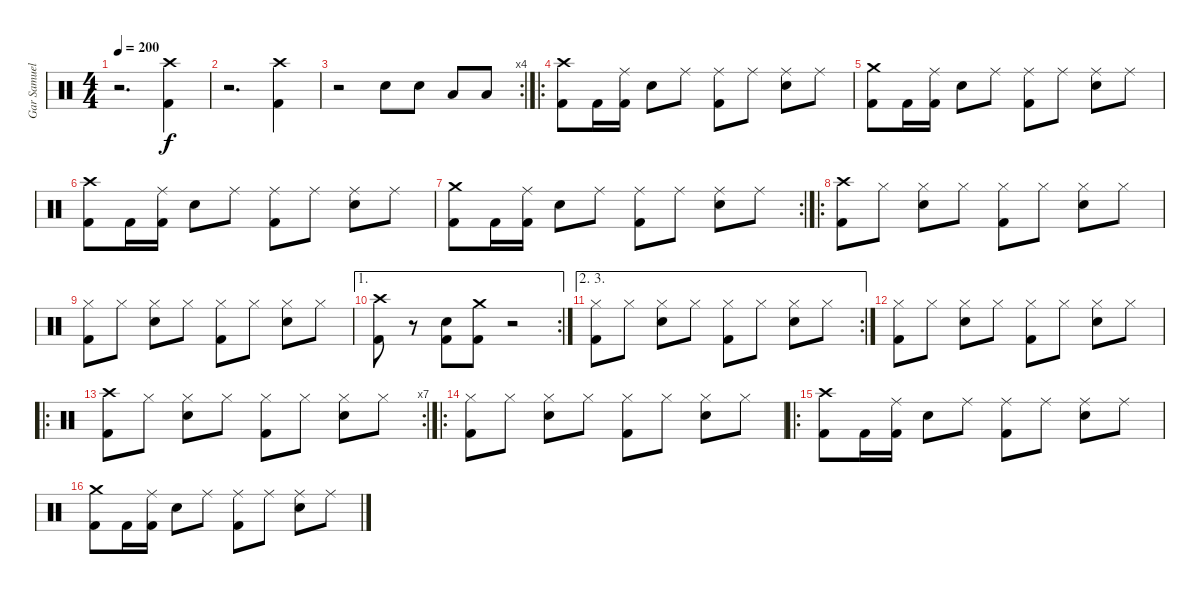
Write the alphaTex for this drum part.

\track ("Gar Samuelson" "Gar Samuel") {instrument percussion}
\staff {score}
\articulation defaults
\ts (4 4)
\tempo 200
\clef neutral
\ks c
r.2{d dy f} ("Crash high (hit)" "Kick (hit) 2").4 |
r.2{d} ("Crash high (hit)" "Kick (hit) 2").4 |
\rc 4
r.2 "Snare (hit) 2".8 "Snare (hit) 2".8 "Low Tom (hit)".8 "Low Tom (hit)".8 |
\ro
("Crash high (hit)" "Kick (hit) 2").8 "Kick (hit) 2".16 ("Ride (middle)" "Kick (hit) 2").16 "Snare (hit) 2".8 "Ride (middle)".8 ("Ride (middle)" "Kick (hit) 2").8 "Ride (middle)".8 ("Ride (middle)" "Snare (hit) 2").8 "Ride (middle)".8 |
("Crash medium (hit)" "Kick (hit) 2").8 "Kick (hit) 2".16 ("Ride (middle)" "Kick (hit) 2").16 "Snare (hit) 2".8 "Ride (middle)".8 ("Ride (middle)" "Kick (hit) 2").8 "Ride (middle)".8 ("Ride (middle)" "Snare (hit) 2").8 "Ride (middle)".8 |
("Crash high (hit)" "Kick (hit) 2").8 "Kick (hit) 2".16 ("Ride (middle)" "Kick (hit) 2").16 "Snare (hit) 2".8 "Ride (middle)".8 ("Ride (middle)" "Kick (hit) 2").8 "Ride (middle)".8 ("Ride (middle)" "Snare (hit) 2").8 "Ride (middle)".8 |
\rc 2
("Crash medium (hit)" "Kick (hit) 2").8 "Kick (hit) 2".16 ("Ride (middle)" "Kick (hit) 2").16 "Snare (hit) 2".8 "Ride (middle)".8 ("Ride (middle)" "Kick (hit) 2").8 "Ride (middle)".8 ("Ride (middle)" "Snare (hit) 2").8 "Ride (middle)".8 |
\ro
("Crash high (hit)" "Kick (hit) 2").8 "Hi-Hat (closed)".8 ("Hi-Hat (closed)" "Snare (hit) 2").8 "Hi-Hat (closed)".8 ("Hi-Hat (closed)" "Kick (hit) 2").8 "Hi-Hat (closed)".8 ("Hi-Hat (closed)" "Snare (hit) 2").8 "Hi-Hat (closed)".8 |
("Hi-Hat (closed)" "Kick (hit) 2").8 "Hi-Hat (closed)".8 ("Hi-Hat (closed)" "Snare (hit) 2").8 "Hi-Hat (closed)".8 ("Hi-Hat (closed)" "Kick (hit) 2").8 "Hi-Hat (closed)".8 ("Hi-Hat (closed)" "Snare (hit) 2").8 "Hi-Hat (closed)".8 |
\ae 1
\rc 2
("Crash high (hit)" "Kick (hit) 2").8 r.8 ("Snare (hit) 2" "Kick (hit) 2").8 ("Crash medium (hit)" "Kick (hit) 2").8 r.2 |
\ae (2 3)
\rc 2
("Hi-Hat (closed)" "Kick (hit) 2").8 "Hi-Hat (closed)".8 ("Hi-Hat (closed)" "Snare (hit) 2").8 "Hi-Hat (closed)".8 ("Hi-Hat (closed)" "Kick (hit) 2").8 "Hi-Hat (closed)".8 ("Hi-Hat (closed)" "Snare (hit) 2").8 "Hi-Hat (closed)".8 |
("Hi-Hat (closed)" "Kick (hit) 2").8 "Hi-Hat (closed)".8 ("Hi-Hat (closed)" "Snare (hit) 2").8 "Hi-Hat (closed)".8 ("Hi-Hat (closed)" "Kick (hit) 2").8 "Hi-Hat (closed)".8 ("Hi-Hat (closed)" "Snare (hit) 2").8 "Hi-Hat (closed)".8 |
\ro
\rc 7
("Crash high (hit)" "Kick (hit) 2").8 "Hi-Hat (closed)".8 ("Hi-Hat (closed)" "Snare (hit) 2").8 "Hi-Hat (closed)".8 ("Hi-Hat (closed)" "Kick (hit) 2").8 "Hi-Hat (closed)".8 ("Hi-Hat (closed)" "Snare (hit) 2").8 "Hi-Hat (closed)".8 |
\ro
("Hi-Hat (closed)" "Kick (hit) 2").8 "Hi-Hat (closed)".8 ("Hi-Hat (closed)" "Snare (hit) 2").8 "Hi-Hat (closed)".8 ("Hi-Hat (closed)" "Kick (hit) 2").8 "Hi-Hat (closed)".8 ("Hi-Hat (closed)" "Snare (hit) 2").8 "Hi-Hat (closed)".8 |
\ro
("Crash high (hit)" "Kick (hit) 2").8 "Kick (hit) 2".16 ("Ride (middle)" "Kick (hit) 2").16 "Snare (hit) 2".8 "Ride (middle)".8 ("Ride (middle)" "Kick (hit) 2").8 "Ride (middle)".8 ("Ride (middle)" "Snare (hit) 2").8 "Ride (middle)".8 |
("Crash medium (hit)" "Kick (hit) 2").8 "Kick (hit) 2".16 ("Ride (middle)" "Kick (hit) 2").16 "Snare (hit) 2".8 "Ride (middle)".8 ("Ride (middle)" "Kick (hit) 2").8 "Ride (middle)".8 ("Ride (middle)" "Snare (hit) 2").8 "Ride (middle)".8
